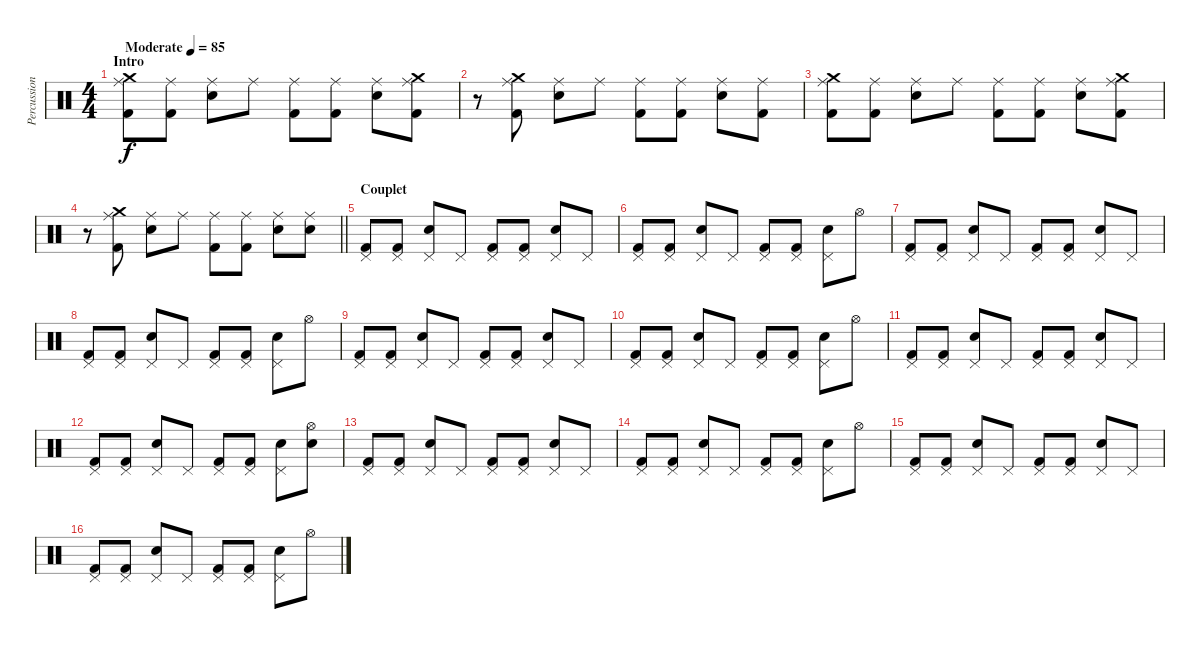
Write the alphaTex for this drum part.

\track ("Percussions" "Percussion") {instrument percussion}
\staff {score}
\articulation defaults
\ts (4 4)
\section ("" "Intro")
\tempo (85 "Moderate")
\clef neutral
\ks c
("Ride (middle)" "Crash medium (hit)" "Kick (hit) 2").8{dy f} ("Ride (middle)" "Kick (hit) 2").8 ("Ride (middle)" "Snare (hit) 2").8 "Ride (middle)".8 ("Ride (middle)" "Kick (hit) 2").8 ("Ride (middle)" "Kick (hit) 2").8 ("Ride (middle)" "Snare (hit) 2").8 ("Crash medium (hit)" "Ride (middle)" "Kick (hit) 2").8 |
r.8 ("Crash medium (hit)" "Ride (middle)" "Kick (hit) 2").8 ("Ride (middle)" "Snare (hit) 2").8 "Ride (middle)".8 ("Ride (middle)" "Kick (hit) 2").8 ("Ride (middle)" "Kick (hit) 2").8 ("Ride (middle)" "Snare (hit) 2").8 ("Ride (middle)" "Kick (hit) 2").8 |
("Ride (middle)" "Crash medium (hit)" "Kick (hit) 2").8 ("Ride (middle)" "Kick (hit) 2").8 ("Ride (middle)" "Snare (hit) 2").8 "Ride (middle)".8 ("Ride (middle)" "Kick (hit) 2").8 ("Ride (middle)" "Kick (hit) 2").8 ("Ride (middle)" "Snare (hit) 2").8 ("Crash medium (hit)" "Ride (middle)" "Kick (hit) 2").8 |
\barLineRight lightlight
r.8 ("Crash medium (hit)" "Ride (middle)" "Kick (hit) 2").8 ("Ride (middle)" "Snare (hit) 2").8 "Ride (middle)".8 ("Ride (middle)" "Kick (hit) 2").8 ("Ride (middle)" "Kick (hit) 2").8 ("Ride (middle)" "Snare (hit) 2").8 ("Ride (middle)" "Snare (hit) 2").8 |
\section ("" "Couplet")
("Pedal Hi-Hat (hit)" "Kick (hit) 2").8 ("Pedal Hi-Hat (hit)" "Kick (hit) 2").8 ("Pedal Hi-Hat (hit)" "Snare (hit) 2").8 "Pedal Hi-Hat (hit)".8 ("Pedal Hi-Hat (hit)" "Kick (hit) 2").8 ("Pedal Hi-Hat (hit)" "Kick (hit) 2").8 ("Pedal Hi-Hat (hit)" "Snare (hit) 2").8 "Pedal Hi-Hat (hit)".8 |
("Pedal Hi-Hat (hit)" "Kick (hit) 2").8 ("Pedal Hi-Hat (hit)" "Kick (hit) 2").8 ("Pedal Hi-Hat (hit)" "Snare (hit) 2").8 "Pedal Hi-Hat (hit)".8 ("Pedal Hi-Hat (hit)" "Kick (hit) 2").8 ("Pedal Hi-Hat (hit)" "Kick (hit) 2").8 ("Pedal Hi-Hat (hit)" "Snare (hit) 2").8 "Hi-Hat (open)".8 |
("Pedal Hi-Hat (hit)" "Kick (hit) 2").8 ("Pedal Hi-Hat (hit)" "Kick (hit) 2").8 ("Pedal Hi-Hat (hit)" "Snare (hit) 2").8 "Pedal Hi-Hat (hit)".8 ("Pedal Hi-Hat (hit)" "Kick (hit) 2").8 ("Pedal Hi-Hat (hit)" "Kick (hit) 2").8 ("Pedal Hi-Hat (hit)" "Snare (hit) 2").8 "Pedal Hi-Hat (hit)".8 |
("Pedal Hi-Hat (hit)" "Kick (hit) 2").8 ("Pedal Hi-Hat (hit)" "Kick (hit) 2").8 ("Pedal Hi-Hat (hit)" "Snare (hit) 2").8 "Pedal Hi-Hat (hit)".8 ("Pedal Hi-Hat (hit)" "Kick (hit) 2").8 ("Pedal Hi-Hat (hit)" "Kick (hit) 2").8 ("Pedal Hi-Hat (hit)" "Snare (hit) 2").8 "Hi-Hat (open)".8 |
("Pedal Hi-Hat (hit)" "Kick (hit) 2").8 ("Pedal Hi-Hat (hit)" "Kick (hit) 2").8 ("Pedal Hi-Hat (hit)" "Snare (hit) 2").8 "Pedal Hi-Hat (hit)".8 ("Pedal Hi-Hat (hit)" "Kick (hit) 2").8 ("Pedal Hi-Hat (hit)" "Kick (hit) 2").8 ("Pedal Hi-Hat (hit)" "Snare (hit) 2").8 "Pedal Hi-Hat (hit)".8 |
("Pedal Hi-Hat (hit)" "Kick (hit) 2").8 ("Pedal Hi-Hat (hit)" "Kick (hit) 2").8 ("Pedal Hi-Hat (hit)" "Snare (hit) 2").8 "Pedal Hi-Hat (hit)".8 ("Pedal Hi-Hat (hit)" "Kick (hit) 2").8 ("Pedal Hi-Hat (hit)" "Kick (hit) 2").8 ("Pedal Hi-Hat (hit)" "Snare (hit) 2").8 "Hi-Hat (open)".8 |
("Pedal Hi-Hat (hit)" "Kick (hit) 2").8 ("Pedal Hi-Hat (hit)" "Kick (hit) 2").8 ("Pedal Hi-Hat (hit)" "Snare (hit) 2").8 "Pedal Hi-Hat (hit)".8 ("Pedal Hi-Hat (hit)" "Kick (hit) 2").8 ("Pedal Hi-Hat (hit)" "Kick (hit) 2").8 ("Pedal Hi-Hat (hit)" "Snare (hit) 2").8 "Pedal Hi-Hat (hit)".8 |
("Pedal Hi-Hat (hit)" "Kick (hit) 2").8 ("Pedal Hi-Hat (hit)" "Kick (hit) 2").8 ("Pedal Hi-Hat (hit)" "Snare (hit) 2").8 "Pedal Hi-Hat (hit)".8 ("Pedal Hi-Hat (hit)" "Kick (hit) 2").8 ("Pedal Hi-Hat (hit)" "Kick (hit) 2").8 ("Pedal Hi-Hat (hit)" "Snare (hit) 2").8 ("Hi-Hat (open)" "Snare (hit) 2").8 |
("Pedal Hi-Hat (hit)" "Kick (hit) 2").8 ("Pedal Hi-Hat (hit)" "Kick (hit) 2").8 ("Pedal Hi-Hat (hit)" "Snare (hit) 2").8 "Pedal Hi-Hat (hit)".8 ("Pedal Hi-Hat (hit)" "Kick (hit) 2").8 ("Pedal Hi-Hat (hit)" "Kick (hit) 2").8 ("Pedal Hi-Hat (hit)" "Snare (hit) 2").8 "Pedal Hi-Hat (hit)".8 |
("Pedal Hi-Hat (hit)" "Kick (hit) 2").8 ("Pedal Hi-Hat (hit)" "Kick (hit) 2").8 ("Pedal Hi-Hat (hit)" "Snare (hit) 2").8 "Pedal Hi-Hat (hit)".8 ("Pedal Hi-Hat (hit)" "Kick (hit) 2").8 ("Pedal Hi-Hat (hit)" "Kick (hit) 2").8 ("Pedal Hi-Hat (hit)" "Snare (hit) 2").8 "Hi-Hat (open)".8 |
("Pedal Hi-Hat (hit)" "Kick (hit) 2").8 ("Pedal Hi-Hat (hit)" "Kick (hit) 2").8 ("Pedal Hi-Hat (hit)" "Snare (hit) 2").8 "Pedal Hi-Hat (hit)".8 ("Pedal Hi-Hat (hit)" "Kick (hit) 2").8 ("Pedal Hi-Hat (hit)" "Kick (hit) 2").8 ("Pedal Hi-Hat (hit)" "Snare (hit) 2").8 "Pedal Hi-Hat (hit)".8 |
("Pedal Hi-Hat (hit)" "Kick (hit) 2").8 ("Pedal Hi-Hat (hit)" "Kick (hit) 2").8 ("Pedal Hi-Hat (hit)" "Snare (hit) 2").8 "Pedal Hi-Hat (hit)".8 ("Pedal Hi-Hat (hit)" "Kick (hit) 2").8 ("Pedal Hi-Hat (hit)" "Kick (hit) 2").8 ("Pedal Hi-Hat (hit)" "Snare (hit) 2").8 "Hi-Hat (open)".8
